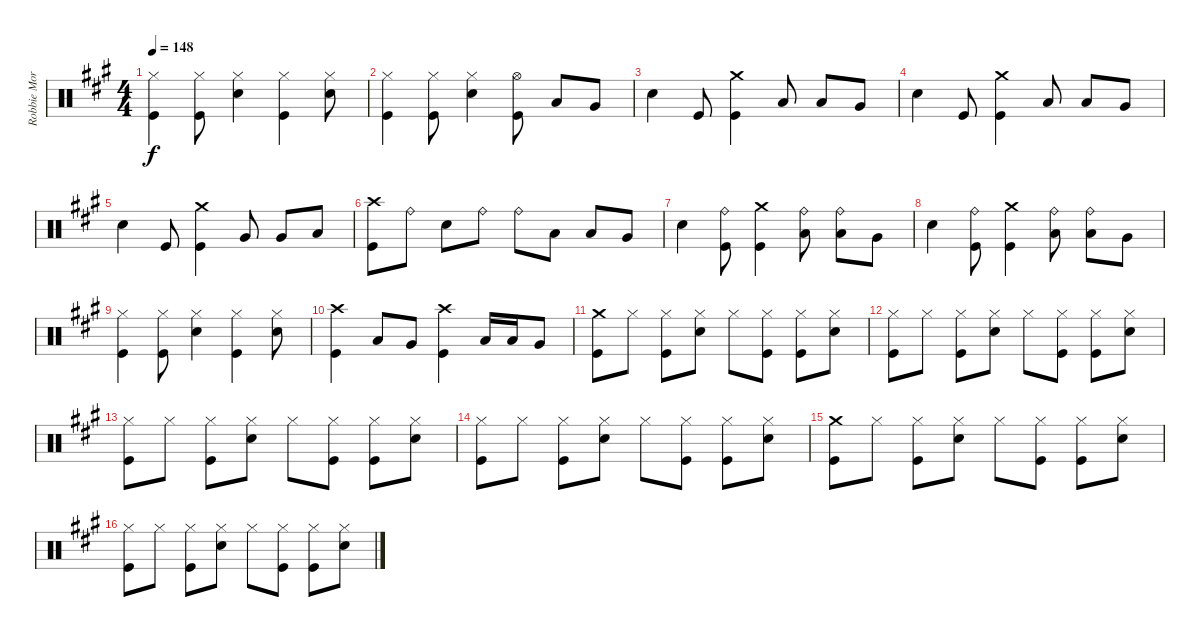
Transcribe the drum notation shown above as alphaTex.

\track ("Robbie Morris Drums" "Robbie Mor") {instrument percussion}
\staff {score}
\articulation defaults
\ts (4 4)
\tempo 148
\clef neutral
\ks a
("Hi-Hat (closed)" "Kick (hit)").4{dy f} ("Hi-Hat (closed)" "Kick (hit)").8 ("Hi-Hat (closed)" "Snare (hit) 2").4 ("Hi-Hat (closed)" "Kick (hit)").4 ("Hi-Hat (closed)" "Snare (hit) 2").8 |
("Hi-Hat (closed)" "Kick (hit)").4 ("Hi-Hat (closed)" "Kick (hit)").8 ("Hi-Hat (closed)" "Snare (hit) 2").4 ("Hi-Hat (open)" "Kick (hit)").8 "Low Tom (hit)".8 "Very Low Tom (hit)".8 |
"Snare (hit) 2".4 "Kick (hit)".8 ("Crash medium (hit)" "Kick (hit)").4 "Low Tom (hit)".8 "Low Tom (hit)".8 "Very Low Tom (hit)".8 |
"Snare (hit) 2".4 "Kick (hit)".8 ("Crash medium (hit)" "Kick (hit)").4 "Low Tom (hit)".8 "Low Tom (hit)".8 "Very Low Tom (hit)".8 |
"Snare (hit) 2".4 "Kick (hit)".8 ("Crash medium (hit)" "Kick (hit)").4 "Very Low Tom (hit)".8 "Very Low Tom (hit)".8 "Low Floor Tom (hit)".8 |
("Crash high (hit)" "Kick (hit)").8 "Ride (bell)".8 "Snare (hit) 2".8 "Ride (bell)".8 "Ride (bell)".8 "Low Tom (hit)".8 "Low Tom (hit)".8 "Very Low Tom (hit)".8 |
"Snare (hit) 2".4 ("Ride (bell)" "Kick (hit)").8 ("Crash medium (hit)" "Kick (hit)").4 ("Ride (bell)" "Low Tom (hit)").8 ("Ride (bell)" "Low Tom (hit)").8 "Very Low Tom (hit)".8 |
"Snare (hit) 2".4 ("Ride (bell)" "Kick (hit)").8 ("Crash medium (hit)" "Kick (hit)").4 ("Ride (bell)" "Low Tom (hit)").8 ("Ride (bell)" "Low Tom (hit)").8 "Very Low Tom (hit)".8 |
("Hi-Hat (closed)" "Kick (hit)").4 ("Hi-Hat (closed)" "Kick (hit)").8 ("Hi-Hat (closed)" "Snare (hit) 2").4 ("Hi-Hat (closed)" "Kick (hit)").4 ("Hi-Hat (closed)" "Snare (hit) 2").8 |
("Crash high (hit)" "Kick (hit)").4 "Low Tom (hit)".8 "Very Low Tom (hit)".8 ("Crash high (hit)" "Kick (hit)").4 "Low Tom (hit)".16 "Low Tom (hit)".16 "Very Low Tom (hit)".8 |
("Crash medium (hit)" "Kick (hit)").8 "Hi-Hat (closed)".8 ("Hi-Hat (closed)" "Kick (hit)").8 ("Hi-Hat (closed)" "Snare (hit) 2").8 "Hi-Hat (closed)".8 ("Hi-Hat (closed)" "Kick (hit)").8 ("Hi-Hat (closed)" "Kick (hit)").8 ("Hi-Hat (closed)" "Snare (hit) 2").8 |
("Hi-Hat (closed)" "Kick (hit)").8 "Hi-Hat (closed)".8 ("Hi-Hat (closed)" "Kick (hit)").8 ("Hi-Hat (closed)" "Snare (hit) 2").8 "Hi-Hat (closed)".8 ("Hi-Hat (closed)" "Kick (hit)").8 ("Hi-Hat (closed)" "Kick (hit)").8 ("Hi-Hat (closed)" "Snare (hit) 2").8 |
("Hi-Hat (closed)" "Kick (hit)").8 "Hi-Hat (closed)".8 ("Hi-Hat (closed)" "Kick (hit)").8 ("Hi-Hat (closed)" "Snare (hit) 2").8 "Hi-Hat (closed)".8 ("Hi-Hat (closed)" "Kick (hit)").8 ("Hi-Hat (closed)" "Kick (hit)").8 ("Hi-Hat (closed)" "Snare (hit) 2").8 |
("Hi-Hat (closed)" "Kick (hit)").8 "Hi-Hat (closed)".8 ("Hi-Hat (closed)" "Kick (hit)").8 ("Hi-Hat (closed)" "Snare (hit) 2").8 "Hi-Hat (closed)".8 ("Hi-Hat (closed)" "Kick (hit)").8 ("Hi-Hat (closed)" "Kick (hit)").8 ("Hi-Hat (closed)" "Snare (hit) 2").8 |
("Crash medium (hit)" "Kick (hit)").8 "Hi-Hat (closed)".8 ("Hi-Hat (closed)" "Kick (hit)").8 ("Hi-Hat (closed)" "Snare (hit) 2").8 "Hi-Hat (closed)".8 ("Hi-Hat (closed)" "Kick (hit)").8 ("Hi-Hat (closed)" "Kick (hit)").8 ("Hi-Hat (closed)" "Snare (hit) 2").8 |
("Hi-Hat (closed)" "Kick (hit)").8 "Hi-Hat (closed)".8 ("Hi-Hat (closed)" "Kick (hit)").8 ("Hi-Hat (closed)" "Snare (hit) 2").8 "Hi-Hat (closed)".8 ("Hi-Hat (closed)" "Kick (hit)").8 ("Hi-Hat (closed)" "Kick (hit)").8 ("Hi-Hat (closed)" "Snare (hit) 2").8
